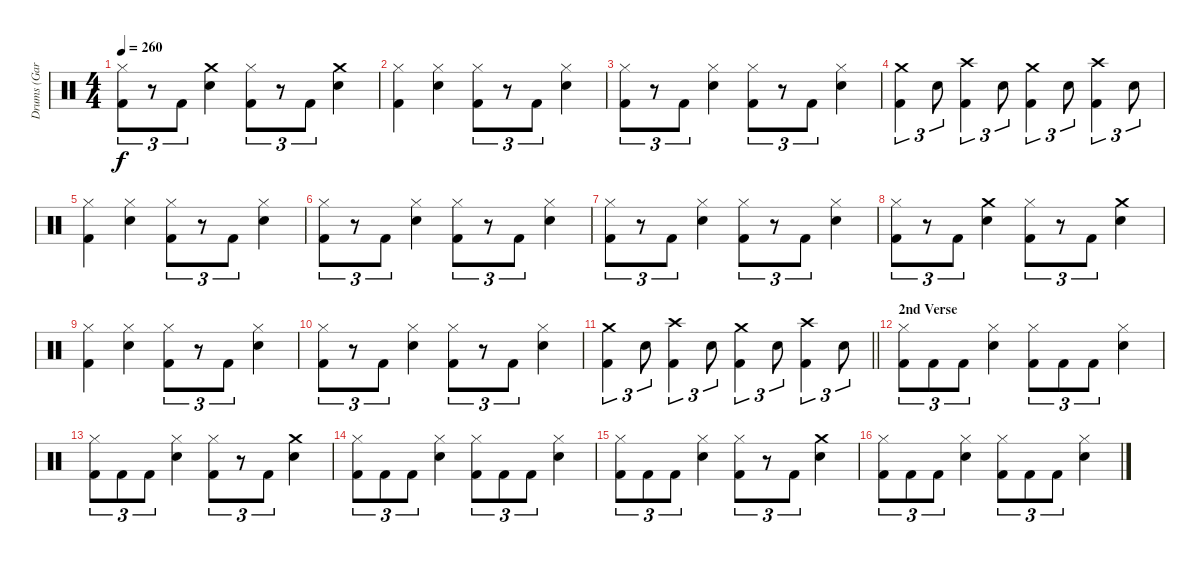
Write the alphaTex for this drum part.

\track ("Drums (Gar Samuelson)" "Drums (Gar") {instrument percussion}
\staff {score}
\articulation defaults
\ts (4 4)
\tempo 260
\clef neutral
\ks c
("Hi-Hat (closed)" "Kick (hit) 2").8{tu (3 2) dy f} r.8{tu (3 2)} "Kick (hit) 2".8{tu (3 2)} ("Crash medium (hit)" "Snare (hit) 2").4 ("Hi-Hat (closed)" "Kick (hit) 2").8{tu (3 2)} r.8{tu (3 2)} "Kick (hit) 2".8{tu (3 2)} ("Crash medium (hit)" "Snare (hit) 2").4 |
("Hi-Hat (closed)" "Kick (hit) 2").4 ("Hi-Hat (closed)" "Snare (hit) 2").4 ("Hi-Hat (closed)" "Kick (hit) 2").8{tu (3 2)} r.8{tu (3 2)} "Kick (hit) 2".8{tu (3 2)} ("Hi-Hat (closed)" "Snare (hit) 2").4 |
("Hi-Hat (closed)" "Kick (hit) 2").8{tu (3 2)} r.8{tu (3 2)} "Kick (hit) 2".8{tu (3 2)} ("Hi-Hat (closed)" "Snare (hit) 2").4 ("Hi-Hat (closed)" "Kick (hit) 2").8{tu (3 2)} r.8{tu (3 2)} "Kick (hit) 2".8{tu (3 2)} ("Hi-Hat (closed)" "Snare (hit) 2").4 |
("Crash medium (hit)" "Kick (hit) 2").4{tu (3 2)} "Snare (hit) 2".8{tu (3 2)} ("Crash high (hit)" "Kick (hit) 2").4{tu (3 2)} "Snare (hit) 2".8{tu (3 2)} ("Crash medium (hit)" "Kick (hit) 2").4{tu (3 2)} "Snare (hit) 2".8{tu (3 2)} ("Crash high (hit)" "Kick (hit) 2").4{tu (3 2)} "Snare (hit) 2".8{tu (3 2)} |
("Hi-Hat (closed)" "Kick (hit) 2").4 ("Hi-Hat (closed)" "Snare (hit) 2").4 ("Hi-Hat (closed)" "Kick (hit) 2").8{tu (3 2)} r.8{tu (3 2)} "Kick (hit) 2".8{tu (3 2)} ("Hi-Hat (closed)" "Snare (hit) 2").4 |
("Hi-Hat (closed)" "Kick (hit) 2").8{tu (3 2)} r.8{tu (3 2)} "Kick (hit) 2".8{tu (3 2)} ("Hi-Hat (closed)" "Snare (hit) 2").4 ("Hi-Hat (closed)" "Kick (hit) 2").8{tu (3 2)} r.8{tu (3 2)} "Kick (hit) 2".8{tu (3 2)} ("Hi-Hat (closed)" "Snare (hit) 2").4 |
("Hi-Hat (closed)" "Kick (hit) 2").8{tu (3 2)} r.8{tu (3 2)} "Kick (hit) 2".8{tu (3 2)} ("Hi-Hat (closed)" "Snare (hit) 2").4 ("Hi-Hat (closed)" "Kick (hit) 2").8{tu (3 2)} r.8{tu (3 2)} "Kick (hit) 2".8{tu (3 2)} ("Hi-Hat (closed)" "Snare (hit) 2").4 |
("Hi-Hat (closed)" "Kick (hit) 2").8{tu (3 2)} r.8{tu (3 2)} "Kick (hit) 2".8{tu (3 2)} ("Crash medium (hit)" "Snare (hit) 2").4 ("Hi-Hat (closed)" "Kick (hit) 2").8{tu (3 2)} r.8{tu (3 2)} "Kick (hit) 2".8{tu (3 2)} ("Crash medium (hit)" "Snare (hit) 2").4 |
("Hi-Hat (closed)" "Kick (hit) 2").4 ("Hi-Hat (closed)" "Snare (hit) 2").4 ("Hi-Hat (closed)" "Kick (hit) 2").8{tu (3 2)} r.8{tu (3 2)} "Kick (hit) 2".8{tu (3 2)} ("Hi-Hat (closed)" "Snare (hit) 2").4 |
("Hi-Hat (closed)" "Kick (hit) 2").8{tu (3 2)} r.8{tu (3 2)} "Kick (hit) 2".8{tu (3 2)} ("Hi-Hat (closed)" "Snare (hit) 2").4 ("Hi-Hat (closed)" "Kick (hit) 2").8{tu (3 2)} r.8{tu (3 2)} "Kick (hit) 2".8{tu (3 2)} ("Hi-Hat (closed)" "Snare (hit) 2").4 |
\barLineRight lightlight
("Crash medium (hit)" "Kick (hit) 2").4{tu (3 2)} "Snare (hit) 2".8{tu (3 2)} ("Crash high (hit)" "Kick (hit) 2").4{tu (3 2)} "Snare (hit) 2".8{tu (3 2)} ("Crash medium (hit)" "Kick (hit) 2").4{tu (3 2)} "Snare (hit) 2".8{tu (3 2)} ("Crash high (hit)" "Kick (hit) 2").4{tu (3 2)} "Snare (hit) 2".8{tu (3 2)} |
\section ("" "2nd Verse")
("Hi-Hat (closed)" "Kick (hit) 2").8{tu (3 2)} "Kick (hit) 2".8{tu (3 2)} "Kick (hit) 2".8{tu (3 2)} ("Hi-Hat (closed)" "Snare (hit) 2").4 ("Hi-Hat (closed)" "Kick (hit) 2").8{tu (3 2)} "Kick (hit) 2".8{tu (3 2)} "Kick (hit) 2".8{tu (3 2)} ("Hi-Hat (closed)" "Snare (hit) 2").4 |
("Hi-Hat (closed)" "Kick (hit) 2").8{tu (3 2)} "Kick (hit) 2".8{tu (3 2)} "Kick (hit) 2".8{tu (3 2)} ("Hi-Hat (closed)" "Snare (hit) 2").4 ("Hi-Hat (closed)" "Kick (hit) 2").8{tu (3 2)} r.8{tu (3 2)} "Kick (hit) 2".8{tu (3 2)} ("Crash medium (hit)" "Snare (hit) 2").4 |
("Hi-Hat (closed)" "Kick (hit) 2").8{tu (3 2)} "Kick (hit) 2".8{tu (3 2)} "Kick (hit) 2".8{tu (3 2)} ("Hi-Hat (closed)" "Snare (hit) 2").4 ("Hi-Hat (closed)" "Kick (hit) 2").8{tu (3 2)} "Kick (hit) 2".8{tu (3 2)} "Kick (hit) 2".8{tu (3 2)} ("Hi-Hat (closed)" "Snare (hit) 2").4 |
("Hi-Hat (closed)" "Kick (hit) 2").8{tu (3 2)} "Kick (hit) 2".8{tu (3 2)} "Kick (hit) 2".8{tu (3 2)} ("Hi-Hat (closed)" "Snare (hit) 2").4 ("Hi-Hat (closed)" "Kick (hit) 2").8{tu (3 2)} r.8{tu (3 2)} "Kick (hit) 2".8{tu (3 2)} ("Crash medium (hit)" "Snare (hit) 2").4 |
("Hi-Hat (closed)" "Kick (hit) 2").8{tu (3 2)} "Kick (hit) 2".8{tu (3 2)} "Kick (hit) 2".8{tu (3 2)} ("Hi-Hat (closed)" "Snare (hit) 2").4 ("Hi-Hat (closed)" "Kick (hit) 2").8{tu (3 2)} "Kick (hit) 2".8{tu (3 2)} "Kick (hit) 2".8{tu (3 2)} ("Hi-Hat (closed)" "Snare (hit) 2").4
